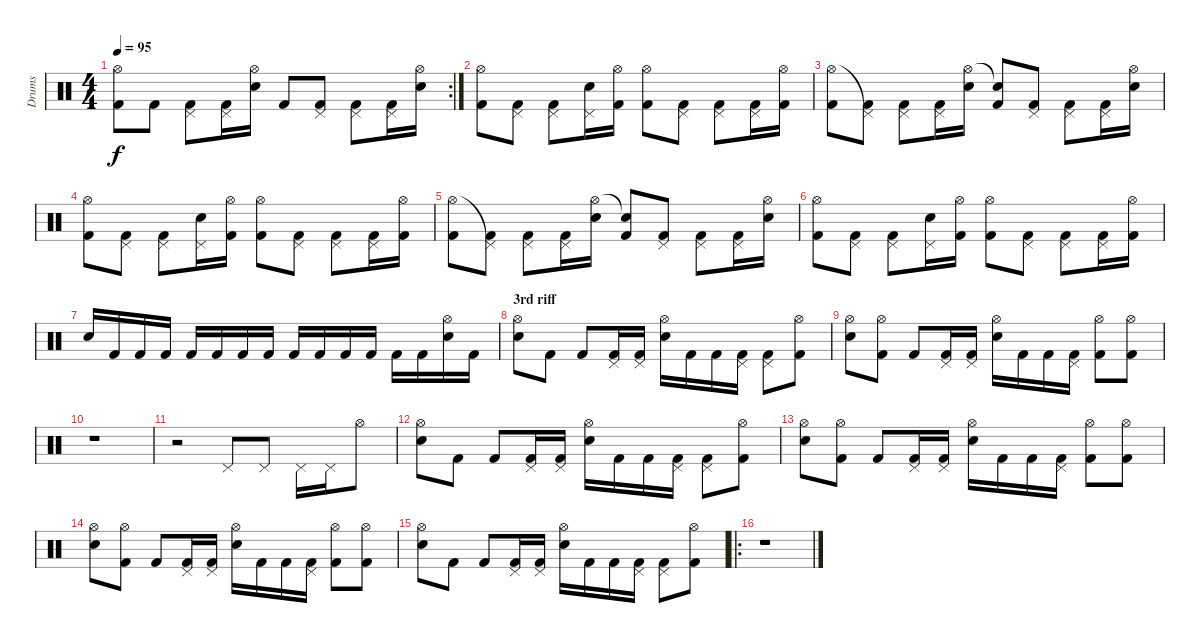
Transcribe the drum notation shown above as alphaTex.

\track ("Drums" "Drums") {instrument percussion}
\staff {score}
\articulation defaults
\rc 2
\ts (4 4)
\tempo 95
\clef neutral
\ks c
("Hi-Hat (open)" "Kick (hit) 2").8{dy f} "Kick (hit) 2".8 ("Pedal Hi-Hat (hit)" "Kick (hit) 2").8 ("Pedal Hi-Hat (hit)" "Kick (hit) 2").16 ("Hi-Hat (open)" "Snare (hit) 2").16 "Kick (hit) 2".8 ("Pedal Hi-Hat (hit)" "Kick (hit) 2").8 ("Pedal Hi-Hat (hit)" "Kick (hit) 2").8 ("Pedal Hi-Hat (hit)" "Kick (hit) 2").16 ("Hi-Hat (open)" "Snare (hit) 2").16 |
("Hi-Hat (open)" "Kick (hit) 2").8 ("Pedal Hi-Hat (hit)" "Kick (hit) 2").8 ("Pedal Hi-Hat (hit)" "Kick (hit) 2").8 ("Pedal Hi-Hat (hit)" "Snare (hit) 2").16 ("Hi-Hat (open)" "Kick (hit) 2").16 ("Hi-Hat (open)" "Kick (hit) 2").8 ("Pedal Hi-Hat (hit)" "Kick (hit) 2").8 ("Pedal Hi-Hat (hit)" "Kick (hit) 2").8 ("Pedal Hi-Hat (hit)" "Kick (hit) 2").16 ("Hi-Hat (open)" "Kick (hit) 2").16 |
("Hi-Hat (open)" "Kick (hit) 2").8 ("Pedal Hi-Hat (hit)"{t} "Kick (hit) 2").8 ("Pedal Hi-Hat (hit)" "Kick (hit) 2").8 ("Pedal Hi-Hat (hit)" "Kick (hit) 2").16 ("Hi-Hat (open)" "Snare (hit) 2").16 ("Snare (hit)"{t} "Kick (hit) 2").8 ("Pedal Hi-Hat (hit)" "Kick (hit) 2").8 ("Pedal Hi-Hat (hit)" "Kick (hit) 2").8 ("Pedal Hi-Hat (hit)" "Kick (hit) 2").16 ("Hi-Hat (open)" "Snare (hit) 2").16 |
("Hi-Hat (open)" "Kick (hit) 2").8 ("Pedal Hi-Hat (hit)" "Kick (hit) 2").8 ("Pedal Hi-Hat (hit)" "Kick (hit) 2").8 ("Pedal Hi-Hat (hit)" "Snare (hit) 2").16 ("Hi-Hat (open)" "Kick (hit) 2").16 ("Hi-Hat (open)" "Kick (hit) 2").8 ("Pedal Hi-Hat (hit)" "Kick (hit) 2").8 ("Pedal Hi-Hat (hit)" "Kick (hit) 2").8 ("Pedal Hi-Hat (hit)" "Kick (hit) 2").16 ("Hi-Hat (open)" "Kick (hit) 2").16 |
("Hi-Hat (open)" "Kick (hit) 2").8 ("Pedal Hi-Hat (hit)"{t} "Kick (hit) 2").8 ("Pedal Hi-Hat (hit)" "Kick (hit) 2").8 ("Pedal Hi-Hat (hit)" "Kick (hit) 2").16 ("Hi-Hat (open)" "Snare (hit) 2").16 ("Snare (hit)"{t} "Kick (hit) 2").8 ("Pedal Hi-Hat (hit)" "Kick (hit) 2").8 ("Pedal Hi-Hat (hit)" "Kick (hit) 2").8 ("Pedal Hi-Hat (hit)" "Kick (hit) 2").16 ("Hi-Hat (open)" "Snare (hit) 2").16 |
("Hi-Hat (open)" "Kick (hit) 2").8 ("Pedal Hi-Hat (hit)" "Kick (hit) 2").8 ("Pedal Hi-Hat (hit)" "Kick (hit) 2").8 ("Pedal Hi-Hat (hit)" "Snare (hit) 2").16 ("Hi-Hat (open)" "Kick (hit) 2").16 ("Hi-Hat (open)" "Kick (hit) 2").8 ("Pedal Hi-Hat (hit)" "Kick (hit) 2").8 ("Pedal Hi-Hat (hit)" "Kick (hit) 2").8 ("Pedal Hi-Hat (hit)" "Kick (hit) 2").16 ("Hi-Hat (open)" "Kick (hit) 2").16 |
"Snare (hit) 2".16 "Kick (hit) 2".16 "Kick (hit) 2".16 "Kick (hit) 2".16 "Kick (hit) 2".16 "Kick (hit) 2".16 "Kick (hit) 2".16 "Kick (hit) 2".16 "Kick (hit) 2".16 "Kick (hit) 2".16 "Kick (hit) 2".16 "Kick (hit) 2".16 "Kick (hit) 2".16 "Kick (hit) 2".16 ("Hi-Hat (open)" "Snare (hit) 2").16 "Kick (hit) 2".16 |
\section ("" "3rd riff")
("Hi-Hat (open)" "Snare (hit) 2").8 "Kick (hit) 2".8 "Kick (hit) 2".8 ("Pedal Hi-Hat (hit)" "Kick (hit) 2").16 ("Pedal Hi-Hat (hit)" "Kick (hit) 2").16 ("Hi-Hat (open)" "Snare (hit) 2").16 "Kick (hit) 2".16 "Kick (hit) 2".16 ("Pedal Hi-Hat (hit)" "Kick (hit) 2").16 ("Pedal Hi-Hat (hit)" "Kick (hit) 2").8 ("Hi-Hat (open)" "Kick (hit) 2").8 |
("Hi-Hat (open)" "Snare (hit) 2").8 ("Hi-Hat (open)" "Kick (hit) 2").8 "Kick (hit) 2".8 ("Pedal Hi-Hat (hit)" "Kick (hit) 2").16 ("Pedal Hi-Hat (hit)" "Kick (hit) 2").16 ("Hi-Hat (open)" "Snare (hit) 2").16 "Kick (hit) 2".16 "Kick (hit) 2".16 ("Pedal Hi-Hat (hit)" "Kick (hit) 2").16 ("Hi-Hat (open)" "Kick (hit) 2").8 ("Hi-Hat (open)" "Kick (hit) 2").8 |
r.1 |
r.2 "Pedal Hi-Hat (hit)".8 "Pedal Hi-Hat (hit)".8 "Pedal Hi-Hat (hit)".16 "Pedal Hi-Hat (hit)".16 "Hi-Hat (open)".8 |
("Hi-Hat (open)" "Snare (hit) 2").8 "Kick (hit) 2".8 "Kick (hit) 2".8 ("Pedal Hi-Hat (hit)" "Kick (hit) 2").16 ("Pedal Hi-Hat (hit)" "Kick (hit) 2").16 ("Hi-Hat (open)" "Snare (hit) 2").16 "Kick (hit) 2".16 "Kick (hit) 2".16 ("Pedal Hi-Hat (hit)" "Kick (hit) 2").16 ("Pedal Hi-Hat (hit)" "Kick (hit) 2").8 ("Hi-Hat (open)" "Kick (hit) 2").8 |
("Hi-Hat (open)" "Snare (hit) 2").8 ("Hi-Hat (open)" "Kick (hit) 2").8 "Kick (hit) 2".8 ("Pedal Hi-Hat (hit)" "Kick (hit) 2").16 ("Pedal Hi-Hat (hit)" "Kick (hit) 2").16 ("Hi-Hat (open)" "Snare (hit) 2").16 "Kick (hit) 2".16 "Kick (hit) 2".16 ("Pedal Hi-Hat (hit)" "Kick (hit) 2").16 ("Hi-Hat (open)" "Kick (hit) 2").8 ("Hi-Hat (open)" "Kick (hit) 2").8 |
("Hi-Hat (open)" "Snare (hit) 2").8 ("Hi-Hat (open)" "Kick (hit) 2").8 "Kick (hit) 2".8 ("Pedal Hi-Hat (hit)" "Kick (hit) 2").16 ("Pedal Hi-Hat (hit)" "Kick (hit) 2").16 ("Hi-Hat (open)" "Snare (hit) 2").16 "Kick (hit) 2".16 "Kick (hit) 2".16 ("Pedal Hi-Hat (hit)" "Kick (hit) 2").16 ("Hi-Hat (open)" "Kick (hit) 2").8 ("Hi-Hat (open)" "Kick (hit) 2").8 |
("Hi-Hat (open)" "Snare (hit) 2").8 "Kick (hit) 2".8 "Kick (hit) 2".8 ("Pedal Hi-Hat (hit)" "Kick (hit) 2").16 ("Pedal Hi-Hat (hit)" "Kick (hit) 2").16 ("Hi-Hat (open)" "Snare (hit) 2").16 "Kick (hit) 2".16 "Kick (hit) 2".16 ("Pedal Hi-Hat (hit)" "Kick (hit) 2").16 ("Pedal Hi-Hat (hit)" "Kick (hit) 2").8 ("Hi-Hat (open)" "Kick (hit) 2").8 |
\ro
r.1
